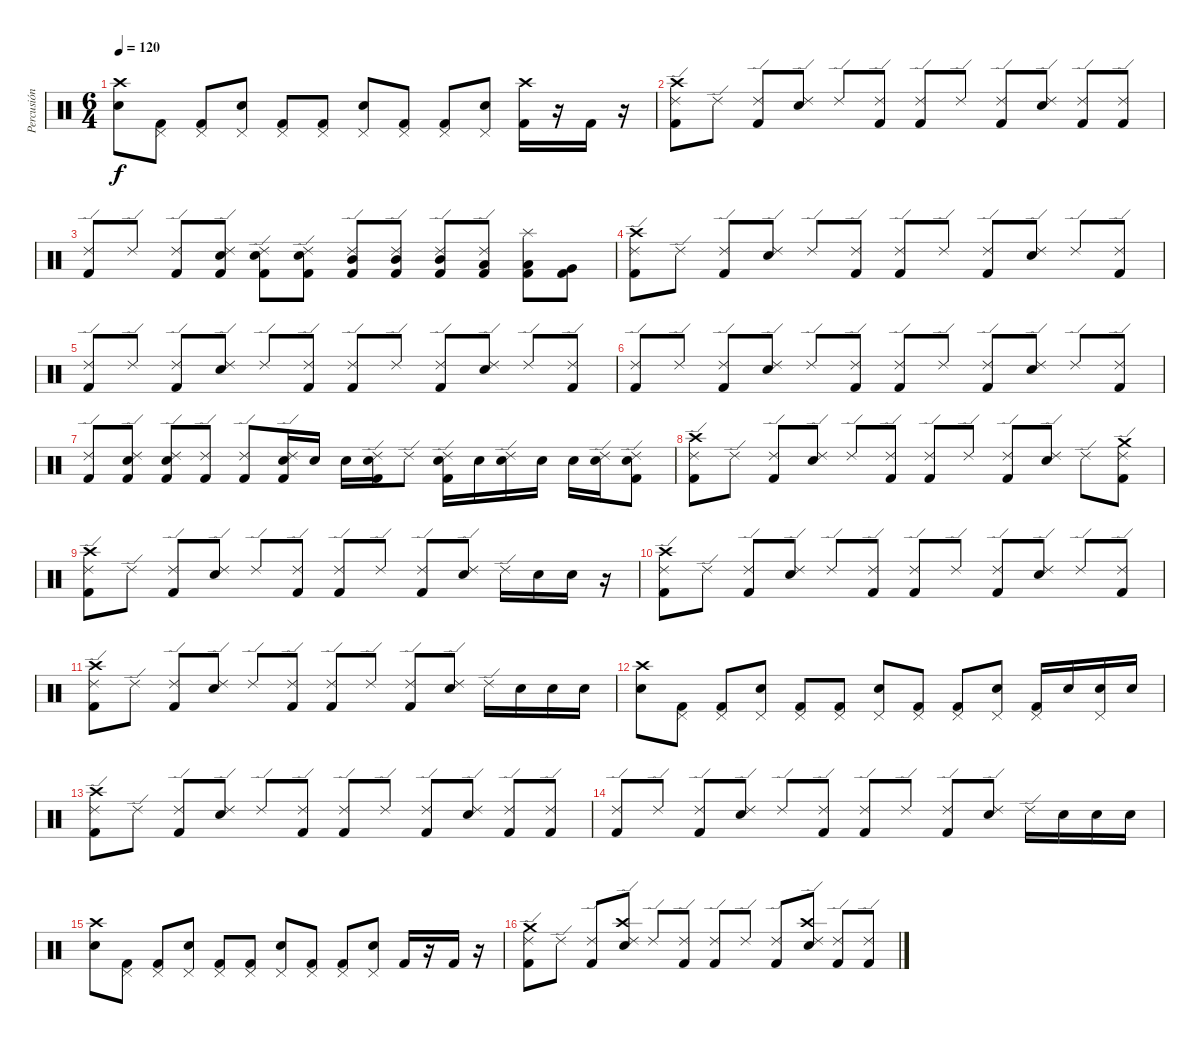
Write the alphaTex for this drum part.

\track ("Percusión" "Percusión") {instrument percussion}
\staff {score}
\articulation defaults
\ts (6 4)
\tempo 120
\clef neutral
\ks c
("Snare (hit) 2" "Crash high (hit)").8{dy f} ("Kick (hit) 2" "Pedal Hi-Hat (hit)").8 ("Kick (hit) 2" "Pedal Hi-Hat (hit)").8 ("Snare (hit) 2" "Pedal Hi-Hat (hit)").8 ("Kick (hit) 2" "Pedal Hi-Hat (hit)").8 ("Kick (hit) 2" "Pedal Hi-Hat (hit)").8 ("Snare (hit) 2" "Pedal Hi-Hat (hit)").8 ("Kick (hit) 2" "Pedal Hi-Hat (hit)").8 ("Kick (hit) 2" "Pedal Hi-Hat (hit)").8 ("Snare (hit) 2" "Pedal Hi-Hat (hit)").8 ("Kick (hit) 2" "Crash high (hit)").16 r.16 "Kick (hit) 2".16 r.16 |
("Kick (hit) 2" "Crash high (hit)" "Ride (edge) 2").8 "Ride (edge) 2".8 ("Kick (hit) 2" "Ride (edge) 2").8 ("Snare (hit) 2" "Ride (edge) 2").8 "Ride (edge) 2".8 ("Kick (hit) 2" "Ride (edge) 2").8 ("Kick (hit) 2" "Ride (edge) 2").8 "Ride (edge) 2".8 ("Kick (hit) 2" "Ride (edge) 2").8 ("Snare (hit) 2" "Ride (edge) 2").8 ("Kick (hit) 2" "Ride (edge) 2").8 ("Kick (hit) 2" "Ride (edge) 2").8 |
("Kick (hit) 2" "Ride (edge) 2").8 "Ride (edge) 2".8 ("Kick (hit) 2" "Ride (edge) 2").8 ("Kick (hit) 2" "Snare (hit) 2" "Ride (edge) 2").8 ("Kick (hit) 2" "Snare (hit) 2" "Ride (edge) 2").8 ("Kick (hit) 2" "Snare (hit) 2" "Ride (edge) 2").8 ("Kick (hit) 2" "Mid Tom (hit)" "Ride (edge) 2").8 ("Kick (hit) 2" "Mid Tom (hit)" "Ride (edge) 2").8 ("Kick (hit) 2" "Mid Tom (hit)" "Ride (edge) 2").8 ("Kick (hit) 2" "Low Tom (hit)" "Ride (edge) 2").8 ("Kick (hit) 2" "Low Tom (hit)" "Splash (hit)").8 ("Kick (hit) 2" "Very Low Tom (hit)").8 |
("Kick (hit) 2" "Crash high (hit)" "Ride (edge) 2").8 "Ride (edge) 2".8 ("Kick (hit) 2" "Ride (edge) 2").8 ("Snare (hit) 2" "Ride (edge) 2").8 "Ride (edge) 2".8 ("Kick (hit) 2" "Ride (edge) 2").8 ("Kick (hit) 2" "Ride (edge) 2").8 "Ride (edge) 2".8 ("Kick (hit) 2" "Ride (edge) 2").8 ("Snare (hit) 2" "Ride (edge) 2").8 "Ride (edge) 2".8 ("Kick (hit) 2" "Ride (edge) 2").8 |
("Kick (hit) 2" "Ride (edge) 2").8 "Ride (edge) 2".8 ("Kick (hit) 2" "Ride (edge) 2").8 ("Snare (hit) 2" "Ride (edge) 2").8 "Ride (edge) 2".8 ("Kick (hit) 2" "Ride (edge) 2").8 ("Kick (hit) 2" "Ride (edge) 2").8 "Ride (edge) 2".8 ("Kick (hit) 2" "Ride (edge) 2").8 ("Snare (hit) 2" "Ride (edge) 2").8 "Ride (edge) 2".8 ("Kick (hit) 2" "Ride (edge) 2").8 |
("Kick (hit) 2" "Ride (edge) 2").8 "Ride (edge) 2".8 ("Kick (hit) 2" "Ride (edge) 2").8 ("Snare (hit) 2" "Ride (edge) 2").8 "Ride (edge) 2".8 ("Kick (hit) 2" "Ride (edge) 2").8 ("Kick (hit) 2" "Ride (edge) 2").8 "Ride (edge) 2".8 ("Kick (hit) 2" "Ride (edge) 2").8 ("Snare (hit) 2" "Ride (edge) 2").8 "Ride (edge) 2".8 ("Kick (hit) 2" "Ride (edge) 2").8 |
("Kick (hit) 2" "Ride (edge) 2").8 ("Kick (hit) 2" "Snare (hit) 2" "Ride (edge) 2").8 ("Kick (hit) 2" "Snare (hit) 2" "Ride (edge) 2").8 ("Kick (hit) 2" "Ride (edge) 2").8 ("Kick (hit) 2" "Ride (edge) 2").8 ("Kick (hit) 2" "Snare (hit) 2" "Ride (edge) 2").16 "Snare (hit) 2".16 "Snare (hit) 2".16 ("Kick (hit) 2" "Snare (hit) 2" "Ride (edge) 2").16 "Ride (edge) 2".8 ("Kick (hit) 2" "Snare (hit) 2" "Ride (edge) 2").16 "Snare (hit) 2".16 ("Snare (hit) 2" "Ride (edge) 2").16 "Snare (hit) 2".16 "Snare (hit) 2".16 ("Snare (hit) 2" "Ride (edge) 2").16 ("Kick (hit) 2" "Snare (hit) 2" "Ride (edge) 2").8 |
("Kick (hit) 2" "Crash high (hit)" "Ride (edge) 2").8 "Ride (edge) 2".8 ("Kick (hit) 2" "Ride (edge) 2").8 ("Snare (hit) 2" "Ride (edge) 2").8 "Ride (edge) 2".8 ("Kick (hit) 2" "Ride (edge) 2").8 ("Kick (hit) 2" "Ride (edge) 2").8 "Ride (edge) 2".8 ("Kick (hit) 2" "Ride (edge) 2").8 ("Snare (hit) 2" "Ride (edge) 2").8 "Ride (edge) 2".8 ("Kick (hit) 2" "Crash medium (hit)" "Ride (edge) 2").8 |
("Kick (hit) 2" "Crash high (hit)" "Ride (edge) 2").8 "Ride (edge) 2".8 ("Kick (hit) 2" "Ride (edge) 2").8 ("Snare (hit) 2" "Ride (edge) 2").8 "Ride (edge) 2".8 ("Kick (hit) 2" "Ride (edge) 2").8 ("Kick (hit) 2" "Ride (edge) 2").8 "Ride (edge) 2".8 ("Kick (hit) 2" "Ride (edge) 2").8 ("Snare (hit) 2" "Ride (edge) 2").8 "Ride (edge) 2".16 "Snare (hit) 2".16 "Snare (hit) 2".16 r.16 |
("Kick (hit) 2" "Crash high (hit)" "Ride (edge) 2").8 "Ride (edge) 2".8 ("Kick (hit) 2" "Ride (edge) 2").8 ("Snare (hit) 2" "Ride (edge) 2").8 "Ride (edge) 2".8 ("Kick (hit) 2" "Ride (edge) 2").8 ("Kick (hit) 2" "Ride (edge) 2").8 "Ride (edge) 2".8 ("Kick (hit) 2" "Ride (edge) 2").8 ("Snare (hit) 2" "Ride (edge) 2").8 "Ride (edge) 2".8 ("Kick (hit) 2" "Ride (edge) 2").8 |
("Kick (hit) 2" "Crash high (hit)" "Ride (edge) 2").8 "Ride (edge) 2".8 ("Kick (hit) 2" "Ride (edge) 2").8 ("Snare (hit) 2" "Ride (edge) 2").8 "Ride (edge) 2".8 ("Kick (hit) 2" "Ride (edge) 2").8 ("Kick (hit) 2" "Ride (edge) 2").8 "Ride (edge) 2".8 ("Kick (hit) 2" "Ride (edge) 2").8 ("Snare (hit) 2" "Ride (edge) 2").8 "Ride (edge) 2".16 "Snare (hit) 2".16 "Snare (hit) 2".16 "Snare (hit) 2".16 |
("Snare (hit) 2" "Crash high (hit)").8 ("Kick (hit) 2" "Pedal Hi-Hat (hit)").8 ("Kick (hit) 2" "Pedal Hi-Hat (hit)").8 ("Snare (hit) 2" "Pedal Hi-Hat (hit)").8 ("Kick (hit) 2" "Pedal Hi-Hat (hit)").8 ("Kick (hit) 2" "Pedal Hi-Hat (hit)").8 ("Snare (hit) 2" "Pedal Hi-Hat (hit)").8 ("Kick (hit) 2" "Pedal Hi-Hat (hit)").8 ("Kick (hit) 2" "Pedal Hi-Hat (hit)").8 ("Snare (hit) 2" "Pedal Hi-Hat (hit)").8 ("Kick (hit) 2" "Pedal Hi-Hat (hit)").16 "Snare (hit) 2".16 ("Snare (hit) 2" "Pedal Hi-Hat (hit)").16 "Snare (hit) 2".16 |
("Kick (hit) 2" "Crash high (hit)" "Ride (edge) 2").8 "Ride (edge) 2".8 ("Kick (hit) 2" "Ride (edge) 2").8 ("Snare (hit) 2" "Ride (edge) 2").8 "Ride (edge) 2".8 ("Kick (hit) 2" "Ride (edge) 2").8 ("Kick (hit) 2" "Ride (edge) 2").8 "Ride (edge) 2".8 ("Kick (hit) 2" "Ride (edge) 2").8 ("Snare (hit) 2" "Ride (edge) 2").8 ("Kick (hit) 2" "Ride (edge) 2").8 ("Kick (hit) 2" "Ride (edge) 2").8 |
("Kick (hit) 2" "Ride (edge) 2").8 "Ride (edge) 2".8 ("Kick (hit) 2" "Ride (edge) 2").8 ("Snare (hit) 2" "Ride (edge) 2").8 "Ride (edge) 2".8 ("Kick (hit) 2" "Ride (edge) 2").8 ("Kick (hit) 2" "Ride (edge) 2").8 "Ride (edge) 2".8 ("Kick (hit) 2" "Ride (edge) 2").8 ("Snare (hit) 2" "Ride (edge) 2").8 "Ride (edge) 2".16 "Snare (hit) 2".16 "Snare (hit) 2".16 "Snare (hit) 2".16 |
("Snare (hit) 2" "Crash high (hit)").8 ("Kick (hit) 2" "Pedal Hi-Hat (hit)").8 ("Kick (hit) 2" "Pedal Hi-Hat (hit)").8 ("Snare (hit) 2" "Pedal Hi-Hat (hit)").8 ("Kick (hit) 2" "Pedal Hi-Hat (hit)").8 ("Kick (hit) 2" "Pedal Hi-Hat (hit)").8 ("Snare (hit) 2" "Pedal Hi-Hat (hit)").8 ("Kick (hit) 2" "Pedal Hi-Hat (hit)").8 ("Kick (hit) 2" "Pedal Hi-Hat (hit)").8 ("Snare (hit) 2" "Pedal Hi-Hat (hit)").8 "Kick (hit) 2".16 r.16 "Kick (hit) 2".16 r.16 |
("Kick (hit) 2" "Crash medium (hit)" "Ride (edge) 2").8 "Ride (edge) 2".8 ("Kick (hit) 2" "Ride (edge) 2").8 ("Snare (hit) 2" "Crash high (hit)" "Ride (edge) 2").8 "Ride (edge) 2".8 ("Kick (hit) 2" "Ride (edge) 2").8 ("Kick (hit) 2" "Ride (edge) 2").8 "Ride (edge) 2".8 ("Kick (hit) 2" "Ride (edge) 2").8 ("Snare (hit) 2" "Crash high (hit)" "Ride (edge) 2").8 ("Kick (hit) 2" "Ride (edge) 2").8 ("Kick (hit) 2" "Ride (edge) 2").8
